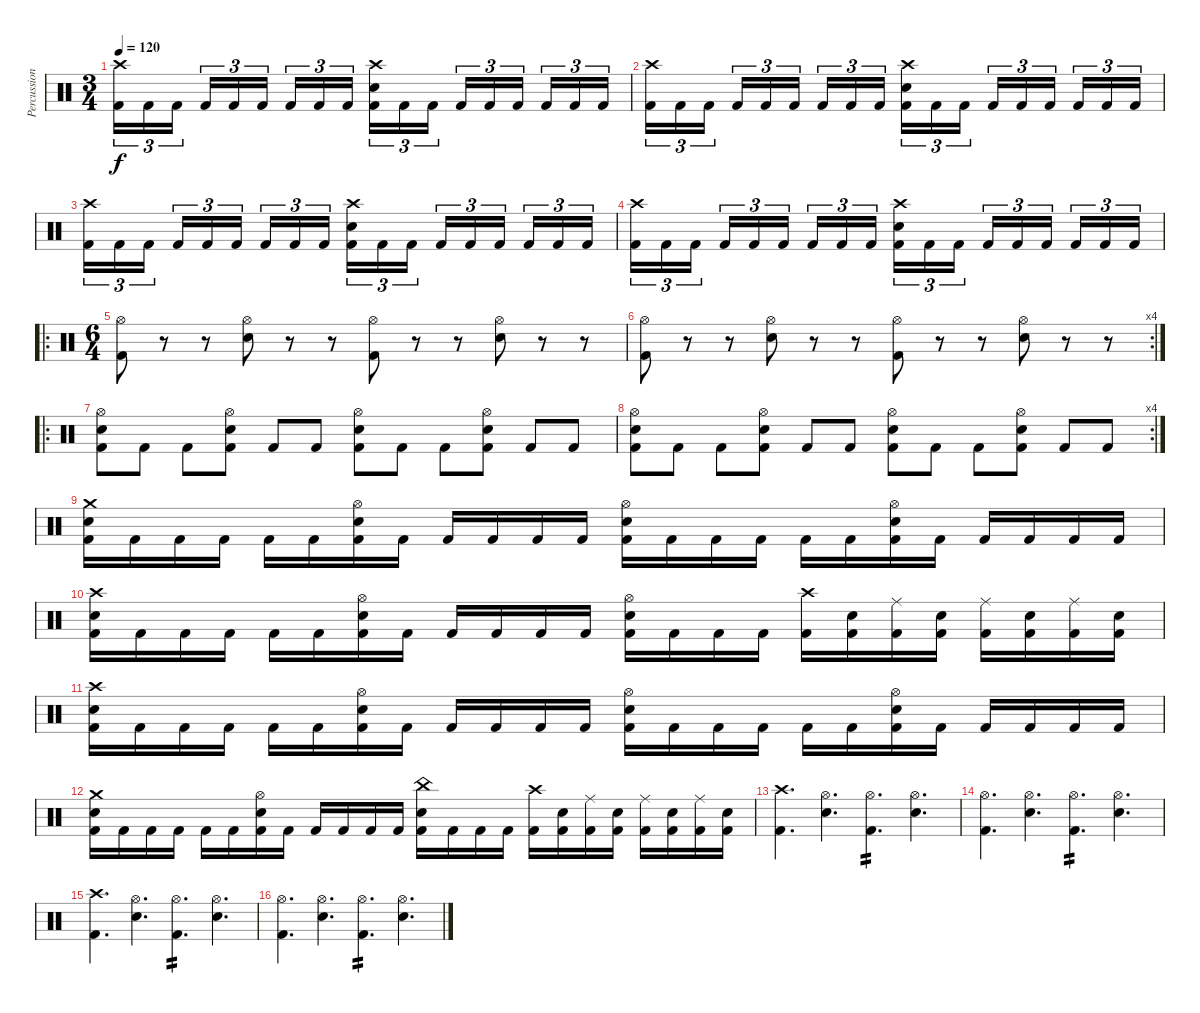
\track ("Percussion" "Percussion") {instrument percussion}
\staff {score}
\articulation defaults
\ts (3 4)
\tempo 120
\clef neutral
\ks c
("Crash high (hit)" "Kick (hit) 2").16{tu (3 2) dy f} "Kick (hit) 2".16{tu (3 2)} "Kick (hit) 2".16{tu (3 2) beam splitsecondary} "Kick (hit) 2".16{tu (3 2)} "Kick (hit) 2".16{tu (3 2)} "Kick (hit) 2".16{tu (3 2)} "Kick (hit) 2".16{tu (3 2)} "Kick (hit) 2".16{tu (3 2)} "Kick (hit) 2".16{tu (3 2) beam splitsecondary} ("Electric Snare (hit)" "Crash high (hit)" "Kick (hit) 2").16{tu (3 2)} "Kick (hit) 2".16{tu (3 2)} "Kick (hit) 2".16{tu (3 2)} "Kick (hit) 2".16{tu (3 2)} "Kick (hit) 2".16{tu (3 2)} "Kick (hit) 2".16{tu (3 2) beam splitsecondary} "Kick (hit) 2".16{tu (3 2)} "Kick (hit) 2".16{tu (3 2)} "Kick (hit) 2".16{tu (3 2)} |
("Crash high (hit)" "Kick (hit) 2").16{tu (3 2)} "Kick (hit) 2".16{tu (3 2)} "Kick (hit) 2".16{tu (3 2) beam splitsecondary} "Kick (hit) 2".16{tu (3 2)} "Kick (hit) 2".16{tu (3 2)} "Kick (hit) 2".16{tu (3 2)} "Kick (hit) 2".16{tu (3 2)} "Kick (hit) 2".16{tu (3 2)} "Kick (hit) 2".16{tu (3 2) beam splitsecondary} ("Electric Snare (hit)" "Crash high (hit)" "Kick (hit) 2").16{tu (3 2)} "Kick (hit) 2".16{tu (3 2)} "Kick (hit) 2".16{tu (3 2)} "Kick (hit) 2".16{tu (3 2)} "Kick (hit) 2".16{tu (3 2)} "Kick (hit) 2".16{tu (3 2) beam splitsecondary} "Kick (hit) 2".16{tu (3 2)} "Kick (hit) 2".16{tu (3 2)} "Kick (hit) 2".16{tu (3 2)} |
("Crash high (hit)" "Kick (hit) 2").16{tu (3 2)} "Kick (hit) 2".16{tu (3 2)} "Kick (hit) 2".16{tu (3 2) beam splitsecondary} "Kick (hit) 2".16{tu (3 2)} "Kick (hit) 2".16{tu (3 2)} "Kick (hit) 2".16{tu (3 2)} "Kick (hit) 2".16{tu (3 2)} "Kick (hit) 2".16{tu (3 2)} "Kick (hit) 2".16{tu (3 2) beam splitsecondary} ("Electric Snare (hit)" "Crash high (hit)" "Kick (hit) 2").16{tu (3 2)} "Kick (hit) 2".16{tu (3 2)} "Kick (hit) 2".16{tu (3 2)} "Kick (hit) 2".16{tu (3 2)} "Kick (hit) 2".16{tu (3 2)} "Kick (hit) 2".16{tu (3 2) beam splitsecondary} "Kick (hit) 2".16{tu (3 2)} "Kick (hit) 2".16{tu (3 2)} "Kick (hit) 2".16{tu (3 2)} |
("Crash high (hit)" "Kick (hit) 2").16{tu (3 2)} "Kick (hit) 2".16{tu (3 2)} "Kick (hit) 2".16{tu (3 2) beam splitsecondary} "Kick (hit) 2".16{tu (3 2)} "Kick (hit) 2".16{tu (3 2)} "Kick (hit) 2".16{tu (3 2)} "Kick (hit) 2".16{tu (3 2)} "Kick (hit) 2".16{tu (3 2)} "Kick (hit) 2".16{tu (3 2) beam splitsecondary} ("Electric Snare (hit)" "Crash high (hit)" "Kick (hit) 2").16{tu (3 2)} "Kick (hit) 2".16{tu (3 2)} "Kick (hit) 2".16{tu (3 2)} "Kick (hit) 2".16{tu (3 2)} "Kick (hit) 2".16{tu (3 2)} "Kick (hit) 2".16{tu (3 2) beam splitsecondary} "Kick (hit) 2".16{tu (3 2)} "Kick (hit) 2".16{tu (3 2)} "Kick (hit) 2".16{tu (3 2)} |
\ro
\ts (6 4)
("Hi-Hat (open)" "Kick (hit) 2").8 r.8 r.8 ("Hi-Hat (open)" "Electric Snare (hit)").8 r.8 r.8 ("Hi-Hat (open)" "Kick (hit) 2").8 r.8 r.8 ("Hi-Hat (open)" "Electric Snare (hit)").8 r.8 r.8 |
\rc 4
("Hi-Hat (open)" "Kick (hit) 2").8 r.8 r.8 ("Hi-Hat (open)" "Electric Snare (hit)").8 r.8 r.8 ("Hi-Hat (open)" "Kick (hit) 2").8 r.8 r.8 ("Hi-Hat (open)" "Electric Snare (hit)").8 r.8 r.8 |
\ro
("Electric Snare (hit)" "Hi-Hat (open)" "Kick (hit) 2").8 "Kick (hit) 2".8 "Kick (hit) 2".8 ("Kick (hit) 2" "Hi-Hat (open)" "Electric Snare (hit)").8 "Kick (hit) 2".8 "Kick (hit) 2".8 ("Electric Snare (hit)" "Hi-Hat (open)" "Kick (hit) 2").8 "Kick (hit) 2".8 "Kick (hit) 2".8 ("Kick (hit) 2" "Hi-Hat (open)" "Electric Snare (hit)").8 "Kick (hit) 2".8 "Kick (hit) 2".8 |
\rc 4
("Electric Snare (hit)" "Hi-Hat (open)" "Kick (hit) 2").8 "Kick (hit) 2".8 "Kick (hit) 2".8 ("Kick (hit) 2" "Hi-Hat (open)" "Electric Snare (hit)").8 "Kick (hit) 2".8 "Kick (hit) 2".8 ("Electric Snare (hit)" "Hi-Hat (open)" "Kick (hit) 2").8 "Kick (hit) 2".8 "Kick (hit) 2".8 ("Kick (hit) 2" "Hi-Hat (open)" "Electric Snare (hit)").8 "Kick (hit) 2".8 "Kick (hit) 2".8 |
("Crash medium (hit)" "Electric Snare (hit)" "Kick (hit) 2").16 "Kick (hit) 2".16 "Kick (hit) 2".16 "Kick (hit) 2".16 "Kick (hit) 2".16 "Kick (hit) 2".16 ("Hi-Hat (open)" "Electric Snare (hit)" "Kick (hit) 2").16 "Kick (hit) 2".16 "Kick (hit) 2".16 "Kick (hit) 2".16 "Kick (hit) 2".16 "Kick (hit) 2".16 ("Hi-Hat (open)" "Electric Snare (hit)" "Kick (hit) 2").16 "Kick (hit) 2".16 "Kick (hit) 2".16 "Kick (hit) 2".16 "Kick (hit) 2".16 "Kick (hit) 2".16 ("Hi-Hat (open)" "Electric Snare (hit)" "Kick (hit) 2").16 "Kick (hit) 2".16 "Kick (hit) 2".16 "Kick (hit) 2".16 "Kick (hit) 2".16 "Kick (hit) 2".16 |
("Crash high (hit)" "Electric Snare (hit)" "Kick (hit) 2").16 "Kick (hit) 2".16 "Kick (hit) 2".16 "Kick (hit) 2".16 "Kick (hit) 2".16 "Kick (hit) 2".16 ("Hi-Hat (open)" "Electric Snare (hit)" "Kick (hit) 2").16 "Kick (hit) 2".16 "Kick (hit) 2".16 "Kick (hit) 2".16 "Kick (hit) 2".16 "Kick (hit) 2".16 ("Hi-Hat (open)" "Electric Snare (hit)" "Kick (hit) 2").16 "Kick (hit) 2".16 "Kick (hit) 2".16 "Kick (hit) 2".16 ("Crash high (hit)" "Kick (hit) 2").16 ("Electric Snare (hit)" "Kick (hit) 2").16 ("Ride (middle)" "Kick (hit) 2").16 ("Electric Snare (hit)" "Kick (hit) 2").16 ("Ride (middle)" "Kick (hit) 2").16 ("Electric Snare (hit)" "Kick (hit) 2").16 ("Ride (middle)" "Kick (hit) 2").16 ("Electric Snare (hit)" "Kick (hit) 2").16 |
("Crash high (hit)" "Electric Snare (hit)" "Kick (hit) 2").16 "Kick (hit) 2".16 "Kick (hit) 2".16 "Kick (hit) 2".16 "Kick (hit) 2".16 "Kick (hit) 2".16 ("Hi-Hat (open)" "Electric Snare (hit)" "Kick (hit) 2").16 "Kick (hit) 2".16 "Kick (hit) 2".16 "Kick (hit) 2".16 "Kick (hit) 2".16 "Kick (hit) 2".16 ("Hi-Hat (open)" "Electric Snare (hit)" "Kick (hit) 2").16 "Kick (hit) 2".16 "Kick (hit) 2".16 "Kick (hit) 2".16 "Kick (hit) 2".16 "Kick (hit) 2".16 ("Hi-Hat (open)" "Electric Snare (hit)" "Kick (hit) 2").16 "Kick (hit) 2".16 "Kick (hit) 2".16 "Kick (hit) 2".16 "Kick (hit) 2".16 "Kick (hit) 2".16 |
("Crash medium (hit)" "Electric Snare (hit)" "Kick (hit) 2").16 "Kick (hit) 2".16 "Kick (hit) 2".16 "Kick (hit) 2".16 "Kick (hit) 2".16 "Kick (hit) 2".16 ("Hi-Hat (open)" "Electric Snare (hit)" "Kick (hit) 2").16 "Kick (hit) 2".16 "Kick (hit) 2".16 "Kick (hit) 2".16 "Kick (hit) 2".16 "Kick (hit) 2".16 ("China (hit)" "Electric Snare (hit)" "Kick (hit) 2").16 "Kick (hit) 2".16 "Kick (hit) 2".16 "Kick (hit) 2".16 ("Crash high (hit)" "Kick (hit) 2").16 ("Electric Snare (hit)" "Kick (hit) 2").16 ("Ride (middle)" "Kick (hit) 2").16 ("Electric Snare (hit)" "Kick (hit) 2").16 ("Ride (middle)" "Kick (hit) 2").16 ("Electric Snare (hit)" "Kick (hit) 2").16 ("Ride (middle)" "Kick (hit) 2").16 ("Electric Snare (hit)" "Kick (hit) 2").16 |
("Crash high (hit)" "Kick (hit) 2").4{d} ("Hi-Hat (open)" "Electric Snare (hit)").4{d} ("Hi-Hat (open)" "Kick (hit) 2").4{d tp 2} ("Hi-Hat (open)" "Electric Snare (hit)").4{d} |
("Hi-Hat (open)" "Kick (hit) 2").4{d} ("Hi-Hat (open)" "Electric Snare (hit)").4{d} ("Hi-Hat (open)" "Kick (hit) 2").4{d tp 2} ("Hi-Hat (open)" "Electric Snare (hit)").4{d} |
("Crash high (hit)" "Kick (hit) 2").4{d} ("Hi-Hat (open)" "Electric Snare (hit)").4{d} ("Hi-Hat (open)" "Kick (hit) 2").4{d tp 2} ("Hi-Hat (open)" "Electric Snare (hit)").4{d} |
("Hi-Hat (open)" "Kick (hit) 2").4{d} ("Hi-Hat (open)" "Electric Snare (hit)").4{d} ("Hi-Hat (open)" "Kick (hit) 2").4{d tp 2} ("Hi-Hat (open)" "Electric Snare (hit)").4{d}
